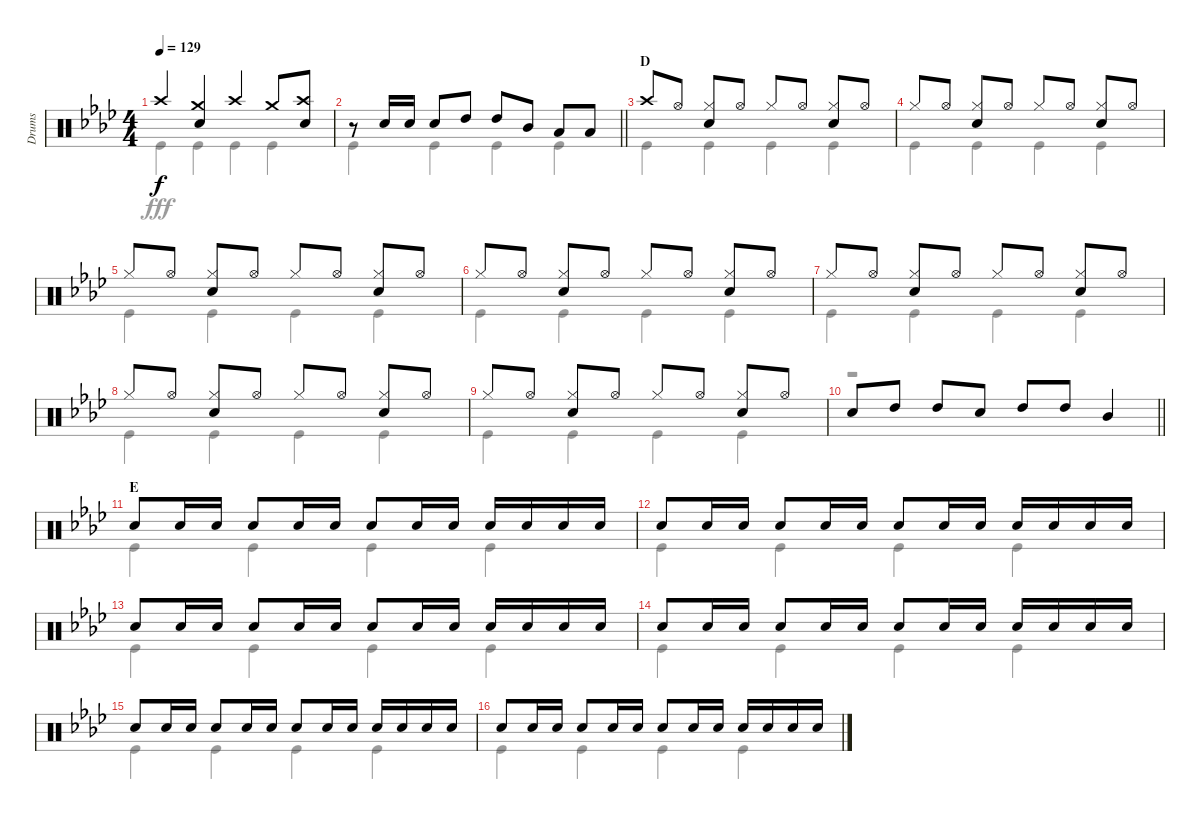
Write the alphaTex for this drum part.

\track ("Drums" "Drums") {instrument percussion}
\staff {score}
\articulation defaults
\voice
\ts (4 4)
\tempo 129
\clef neutral
\ks ab "Crash high (hit)".4{dy f}
("Crash medium (hit)" "Snare (hit) 2").4 "Crash high (hit)".4 "Crash medium (hit)".8 ("Crash high (hit)" "Snare (hit) 2").8 |
\barLineRight lightlight
r.8 "Snare (hit) 2".16 "Snare (hit) 2".16 "Snare (hit) 2".8 "High Tom (hit)".8 "High Tom (hit)".8 "Mid Tom (hit)".8 "Low Tom (hit)".8 "Low Tom (hit)".8 |
\section ("" "D")
"Crash high (hit)".8 "Hi-Hat (open)".8 ("Hi-Hat (closed)" "Snare (hit) 2").8 "Hi-Hat (open)".8 "Hi-Hat (closed)".8 "Hi-Hat (open)".8 ("Hi-Hat (closed)" "Snare (hit) 2").8 "Hi-Hat (open)".8 |
"Hi-Hat (closed)".8 "Hi-Hat (open)".8 ("Hi-Hat (closed)" "Snare (hit) 2").8 "Hi-Hat (open)".8 "Hi-Hat (closed)".8 "Hi-Hat (open)".8 ("Hi-Hat (closed)" "Snare (hit) 2").8 "Hi-Hat (open)".8 |
"Hi-Hat (closed)".8 "Hi-Hat (open)".8 ("Hi-Hat (closed)" "Snare (hit) 2").8 "Hi-Hat (open)".8 "Hi-Hat (closed)".8 "Hi-Hat (open)".8 ("Hi-Hat (closed)" "Snare (hit) 2").8 "Hi-Hat (open)".8 |
"Hi-Hat (closed)".8 "Hi-Hat (open)".8 ("Hi-Hat (closed)" "Snare (hit) 2").8 "Hi-Hat (open)".8 "Hi-Hat (closed)".8 "Hi-Hat (open)".8 ("Hi-Hat (closed)" "Snare (hit) 2").8 "Hi-Hat (open)".8 |
"Hi-Hat (closed)".8 "Hi-Hat (open)".8 ("Hi-Hat (closed)" "Snare (hit) 2").8 "Hi-Hat (open)".8 "Hi-Hat (closed)".8 "Hi-Hat (open)".8 ("Hi-Hat (closed)" "Snare (hit) 2").8 "Hi-Hat (open)".8 |
"Hi-Hat (closed)".8 "Hi-Hat (open)".8 ("Hi-Hat (closed)" "Snare (hit) 2").8 "Hi-Hat (open)".8 "Hi-Hat (closed)".8 "Hi-Hat (open)".8 ("Hi-Hat (closed)" "Snare (hit) 2").8 "Hi-Hat (open)".8 |
"Hi-Hat (closed)".8 "Hi-Hat (open)".8 ("Hi-Hat (closed)" "Snare (hit) 2").8 "Hi-Hat (open)".8 "Hi-Hat (closed)".8 "Hi-Hat (open)".8 ("Hi-Hat (closed)" "Snare (hit) 2").8 "Hi-Hat (open)".8 |
\barLineRight lightlight "Snare (hit) 2".8 "High Tom (hit)".8 "High Tom (hit)".8 "Snare (hit) 2".8 "High Tom (hit)".8 "High Tom (hit)".8 "Mid Tom (hit)".4
|
\section ("" "E")
"Snare (hit) 2".8 "Snare (hit) 2".16 "Snare (hit) 2".16 "Snare (hit) 2".8 "Snare (hit) 2".16 "Snare (hit) 2".16 "Snare (hit) 2".8 "Snare (hit) 2".16 "Snare (hit) 2".16 "Snare (hit) 2".16 "Snare (hit) 2".16 "Snare (hit) 2".16 "Snare (hit) 2".16 |
"Snare (hit) 2".8 "Snare (hit) 2".16 "Snare (hit) 2".16 "Snare (hit) 2".8 "Snare (hit) 2".16 "Snare (hit) 2".16 "Snare (hit) 2".8 "Snare (hit) 2".16 "Snare (hit) 2".16 "Snare (hit) 2".16 "Snare (hit) 2".16 "Snare (hit) 2".16 "Snare (hit) 2".16 |
"Snare (hit) 2".8 "Snare (hit) 2".16 "Snare (hit) 2".16 "Snare (hit) 2".8 "Snare (hit) 2".16 "Snare (hit) 2".16 "Snare (hit) 2".8 "Snare (hit) 2".16 "Snare (hit) 2".16 "Snare (hit) 2".16 "Snare (hit) 2".16 "Snare (hit) 2".16 "Snare (hit) 2".16 |
"Snare (hit) 2".8 "Snare (hit) 2".16 "Snare (hit) 2".16 "Snare (hit) 2".8 "Snare (hit) 2".16 "Snare (hit) 2".16 "Snare (hit) 2".8 "Snare (hit) 2".16 "Snare (hit) 2".16 "Snare (hit) 2".16 "Snare (hit) 2".16 "Snare (hit) 2".16 "Snare (hit) 2".16 |
"Snare (hit) 2".8 "Snare (hit) 2".16 "Snare (hit) 2".16 "Snare (hit) 2".8 "Snare (hit) 2".16 "Snare (hit) 2".16 "Snare (hit) 2".8 "Snare (hit) 2".16 "Snare (hit) 2".16 "Snare (hit) 2".16 "Snare (hit) 2".16 "Snare (hit) 2".16 "Snare (hit) 2".16 |
"Snare (hit) 2".8 "Snare (hit) 2".16 "Snare (hit) 2".16 "Snare (hit) 2".8 "Snare (hit) 2".16 "Snare (hit) 2".16 "Snare (hit) 2".8 "Snare (hit) 2".16 "Snare (hit) 2".16 "Snare (hit) 2".16 "Snare (hit) 2".16 "Snare (hit) 2".16 "Snare (hit) 2".16
\voice
\clef neutral
\ottava regular
\simile none
\ks ab "Kick (hit)".4{dy fff} "Kick (hit)".4 "Kick (hit)".4 "Kick (hit)".4
|
\barLineRight lightlight "Kick (hit)".4 "Kick (hit)".4 "Kick (hit)".4 "Kick (hit)".4
|
"Kick (hit)".4 "Kick (hit)".4 "Kick (hit)".4 "Kick (hit)".4 |
"Kick (hit)".4 "Kick (hit)".4 "Kick (hit)".4 "Kick (hit)".4 |
"Kick (hit)".4 "Kick (hit)".4 "Kick (hit)".4 "Kick (hit)".4 |
"Kick (hit)".4 "Kick (hit)".4 "Kick (hit)".4 "Kick (hit)".4 |
"Kick (hit)".4 "Kick (hit)".4 "Kick (hit)".4 "Kick (hit)".4 |
"Kick (hit)".4 "Kick (hit)".4 "Kick (hit)".4 "Kick (hit)".4 |
"Kick (hit)".4 "Kick (hit)".4 "Kick (hit)".4 "Kick (hit)".4 |
\barLineRight lightlight
r.1 |
"Kick (hit)".4 "Kick (hit)".4 "Kick (hit)".4 "Kick (hit)".4 |
"Kick (hit)".4 "Kick (hit)".4 "Kick (hit)".4 "Kick (hit)".4 |
"Kick (hit)".4 "Kick (hit)".4 "Kick (hit)".4 "Kick (hit)".4 |
"Kick (hit)".4 "Kick (hit)".4 "Kick (hit)".4 "Kick (hit)".4 |
"Kick (hit)".4 "Kick (hit)".4 "Kick (hit)".4 "Kick (hit)".4 |
"Kick (hit)".4 "Kick (hit)".4 "Kick (hit)".4 "Kick (hit)".4
